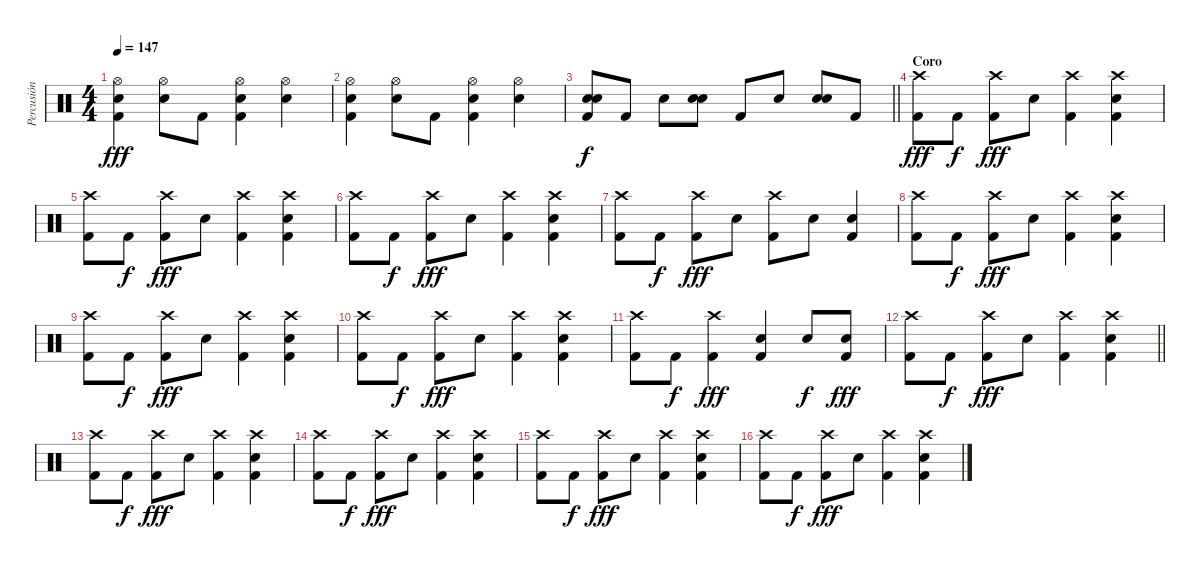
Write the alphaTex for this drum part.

\track ("Percusión" "Percusión") {instrument percussion}
\staff {score}
\articulation defaults
\ts (4 4)
\tempo 147
\clef neutral
\ks c
("Hi-Hat (open)" "Electric Snare (hit)" "Kick (hit) 2").4{dy fff} ("Hi-Hat (open)" "Electric Snare (hit)").8 "Kick (hit) 2".8 ("Hi-Hat (open)" "Electric Snare (hit)" "Kick (hit) 2").4 ("Hi-Hat (open)" "Electric Snare (hit)").4 |
("Hi-Hat (open)" "Electric Snare (hit)" "Kick (hit) 2").4 ("Hi-Hat (open)" "Electric Snare (hit)").8 "Kick (hit) 2".8 ("Hi-Hat (open)" "Electric Snare (hit)" "Kick (hit) 2").4 ("Hi-Hat (open)" "Electric Snare (hit)").4 |
\barLineRight lightlight
("Electric Snare (hit)" "Electric Snare (hit)" "Kick (hit) 2").8{bd 240 dy f} "Kick (hit) 2".8 "Electric Snare (hit)".8 ("Electric Snare (hit)" "Electric Snare (hit)").8{bd 240} "Kick (hit) 2".8 "Electric Snare (hit)".8 ("Electric Snare (hit)" "Electric Snare (hit)").8{bd 240} "Kick (hit) 2".8 |
\section ("" "Coro")
("Crash high (hit)" "Kick (hit) 2").8{dy fff} "Kick (hit) 2".8{dy f} ("Crash high (hit)" "Kick (hit) 2").8{dy fff} "Electric Snare (hit)".8 ("Crash high (hit)" "Kick (hit) 2").4 ("Crash high (hit)" "Electric Snare (hit)" "Kick (hit) 2").4 |
("Crash high (hit)" "Kick (hit) 2").8 "Kick (hit) 2".8{dy f} ("Crash high (hit)" "Kick (hit) 2").8{dy fff} "Electric Snare (hit)".8 ("Crash high (hit)" "Kick (hit) 2").4 ("Crash high (hit)" "Electric Snare (hit)" "Kick (hit) 2").4 |
("Crash high (hit)" "Kick (hit) 2").8 "Kick (hit) 2".8{dy f} ("Crash high (hit)" "Kick (hit) 2").8{dy fff} "Electric Snare (hit)".8 ("Crash high (hit)" "Kick (hit) 2").4 ("Crash high (hit)" "Electric Snare (hit)" "Kick (hit) 2").4 |
("Crash high (hit)" "Kick (hit) 2").8 "Kick (hit) 2".8{dy f} ("Crash high (hit)" "Kick (hit) 2").8{dy fff} "Electric Snare (hit)".8 ("Crash high (hit)" "Kick (hit) 2").8 "Electric Snare (hit)".8 ("Electric Snare (hit)" "Kick (hit) 2").4 |
("Crash high (hit)" "Kick (hit) 2").8 "Kick (hit) 2".8{dy f} ("Crash high (hit)" "Kick (hit) 2").8{dy fff} "Electric Snare (hit)".8 ("Crash high (hit)" "Kick (hit) 2").4 ("Crash high (hit)" "Electric Snare (hit)" "Kick (hit) 2").4 |
("Crash high (hit)" "Kick (hit) 2").8 "Kick (hit) 2".8{dy f} ("Crash high (hit)" "Kick (hit) 2").8{dy fff} "Electric Snare (hit)".8 ("Crash high (hit)" "Kick (hit) 2").4 ("Crash high (hit)" "Electric Snare (hit)" "Kick (hit) 2").4 |
("Crash high (hit)" "Kick (hit) 2").8 "Kick (hit) 2".8{dy f} ("Crash high (hit)" "Kick (hit) 2").8{dy fff} "Electric Snare (hit)".8 ("Crash high (hit)" "Kick (hit) 2").4 ("Crash high (hit)" "Electric Snare (hit)" "Kick (hit) 2").4 |
("Crash high (hit)" "Kick (hit) 2").8 "Kick (hit) 2".8{dy f} ("Crash high (hit)" "Kick (hit) 2").4{dy fff} ("Electric Snare (hit)" "Kick (hit) 2").4 "Electric Snare (hit)".8{dy f} ("Electric Snare (hit)" "Kick (hit) 2").8{dy fff} |
\barLineRight lightlight
("Crash high (hit)" "Kick (hit) 2").8 "Kick (hit) 2".8{dy f} ("Crash high (hit)" "Kick (hit) 2").8{dy fff} "Electric Snare (hit)".8 ("Crash high (hit)" "Kick (hit) 2").4 ("Crash high (hit)" "Electric Snare (hit)" "Kick (hit) 2").4 |
("Crash high (hit)" "Kick (hit) 2").8 "Kick (hit) 2".8{dy f} ("Crash high (hit)" "Kick (hit) 2").8{dy fff} "Electric Snare (hit)".8 ("Crash high (hit)" "Kick (hit) 2").4 ("Crash high (hit)" "Electric Snare (hit)" "Kick (hit) 2").4 |
("Crash high (hit)" "Kick (hit) 2").8 "Kick (hit) 2".8{dy f} ("Crash high (hit)" "Kick (hit) 2").8{dy fff} "Electric Snare (hit)".8 ("Crash high (hit)" "Kick (hit) 2").4 ("Crash high (hit)" "Electric Snare (hit)" "Kick (hit) 2").4 |
("Crash high (hit)" "Kick (hit) 2").8 "Kick (hit) 2".8{dy f} ("Crash high (hit)" "Kick (hit) 2").8{dy fff} "Electric Snare (hit)".8 ("Crash high (hit)" "Kick (hit) 2").4 ("Crash high (hit)" "Electric Snare (hit)" "Kick (hit) 2").4 |
("Crash high (hit)" "Kick (hit) 2").8 "Kick (hit) 2".8{dy f} ("Crash high (hit)" "Kick (hit) 2").8{dy fff} "Electric Snare (hit)".8 ("Crash high (hit)" "Kick (hit) 2").4 ("Crash high (hit)" "Electric Snare (hit)" "Kick (hit) 2").4
